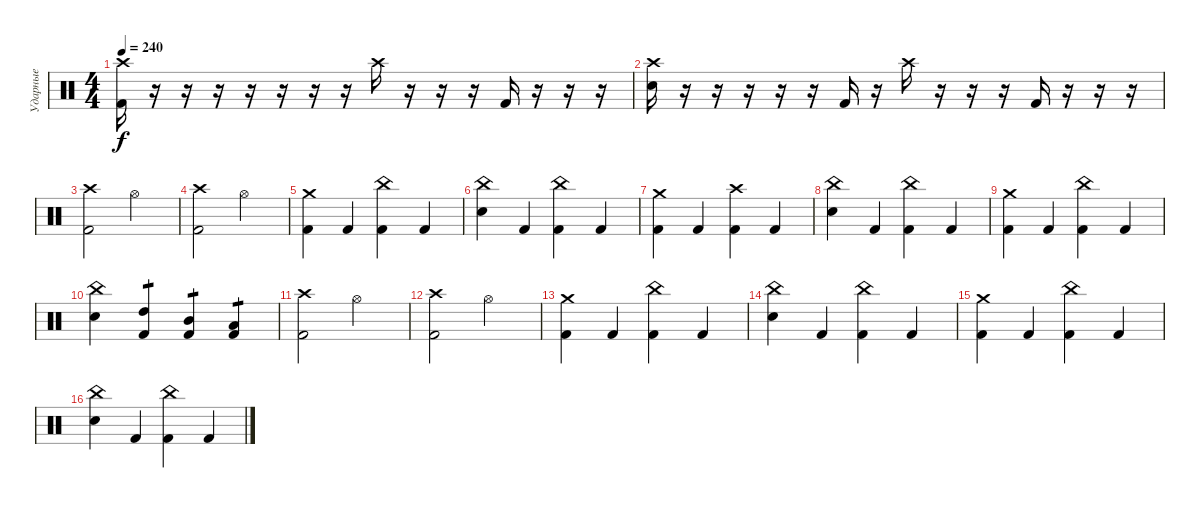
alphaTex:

\track ("Ударные" "Ударные") {instrument percussion}
\staff {score}
\articulation defaults
\ts (4 4)
\tempo 240
\clef neutral
\ks c
("Crash high (hit)" "Kick (hit) 2").16{dy f} r.16 r.16 r.16 r.16 r.16 r.16 r.16 "Crash high (hit)".16 r.16 r.16 r.16 "Kick (hit) 2".16 r.16 r.16 r.16 |
("Crash high (hit)" "Electric Snare (hit)").16 r.16 r.16 r.16 r.16 r.16 "Kick (hit) 2".16 r.16 "Crash high (hit)".16 r.16 r.16 r.16 "Kick (hit) 2".16 r.16 r.16 r.16 |
("Crash high (hit)" "Kick (hit) 2").2 "Hi-Hat (open)".2 |
("Crash high (hit)" "Kick (hit) 2").2 "Hi-Hat (open)".2 |
("Crash medium (hit)" "Kick (hit) 2").4 "Kick (hit) 2".4 ("China (hit)" "Kick (hit) 2").4 "Kick (hit) 2".4 |
("China (hit)" "Electric Snare (hit)").4 "Kick (hit) 2".4 ("China (hit)" "Kick (hit) 2").4 "Kick (hit) 2".4 |
("Crash medium (hit)" "Kick (hit) 2").4 "Kick (hit) 2".4 ("Crash high (hit)" "Kick (hit) 2").4 "Kick (hit) 2".4 |
("China (hit)" "Electric Snare (hit)").4 "Kick (hit) 2".4 ("China (hit)" "Kick (hit) 2").4 "Kick (hit) 2".4 |
("Crash medium (hit)" "Kick (hit) 2").4 "Kick (hit) 2".4 ("China (hit)" "Kick (hit) 2").4 "Kick (hit) 2".4 |
("China (hit)" "Electric Snare (hit)").4 ("High Tom (hit)" "Kick (hit) 2").4{tp 1} ("Mid Tom (hit)" "Kick (hit) 2").4{tp 1} ("Low Tom (hit)" "Kick (hit) 2").4{tp 1} |
("Crash high (hit)" "Kick (hit) 2").2 "Hi-Hat (open)".2 |
("Crash high (hit)" "Kick (hit) 2").2 "Hi-Hat (open)".2 |
("Crash medium (hit)" "Kick (hit) 2").4 "Kick (hit) 2".4 ("China (hit)" "Kick (hit) 2").4 "Kick (hit) 2".4 |
("China (hit)" "Electric Snare (hit)").4 "Kick (hit) 2".4 ("China (hit)" "Kick (hit) 2").4 "Kick (hit) 2".4 |
("Crash medium (hit)" "Kick (hit) 2").4 "Kick (hit) 2".4 ("China (hit)" "Kick (hit) 2").4 "Kick (hit) 2".4 |
("China (hit)" "Electric Snare (hit)").4 "Kick (hit) 2".4 ("China (hit)" "Kick (hit) 2").4 "Kick (hit) 2".4
